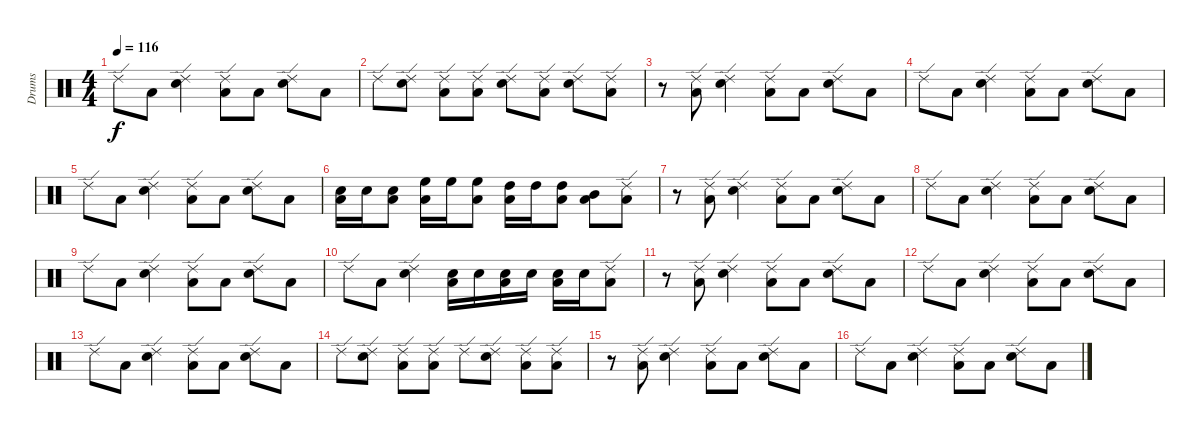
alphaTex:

\track ("Drums" "Drums") {instrument percussion}
\staff {score}
\articulation defaults
\ts (4 4)
\tempo 116
\clef neutral
\ks c "Ride (edge) 2".8{dy f} "Low Floor Tom (hit)".8
("Snare (hit) 2" "Ride (edge) 2").4 ("Low Floor Tom (hit)" "Ride (edge) 2").8 "Low Floor Tom (hit)".8 ("Snare (hit) 2" "Ride (edge) 2").8 "Low Floor Tom (hit)".8 |
"Ride (edge) 2".8 ("Snare (hit) 2" "Ride (edge) 2").8 ("Low Floor Tom (hit)" "Ride (edge) 2").8 ("Low Floor Tom (hit)" "Ride (edge) 2").8 ("Snare (hit) 2" "Ride (edge) 2").8 ("Low Floor Tom (hit)" "Ride (edge) 2").8 ("Snare (hit) 2" "Ride (edge) 2").8 ("Low Floor Tom (hit)" "Ride (edge) 2").8 |
r.8 ("Low Floor Tom (hit)" "Ride (edge) 2").8 ("Snare (hit) 2" "Ride (edge) 2").4 ("Low Floor Tom (hit)" "Ride (edge) 2").8 "Low Floor Tom (hit)".8 ("Snare (hit) 2" "Ride (edge) 2").8 "Low Floor Tom (hit)".8 |
"Ride (edge) 2".8 "Low Floor Tom (hit)".8 ("Snare (hit) 2" "Ride (edge) 2").4 ("Low Floor Tom (hit)" "Ride (edge) 2").8 "Low Floor Tom (hit)".8 ("Snare (hit) 2" "Ride (edge) 2").8 "Low Floor Tom (hit)".8 |
"Ride (edge) 2".8 "Low Floor Tom (hit)".8 ("Snare (hit) 2" "Ride (edge) 2").4 ("Low Floor Tom (hit)" "Ride (edge) 2").8 "Low Floor Tom (hit)".8 ("Snare (hit) 2" "Ride (edge) 2").8 "Low Floor Tom (hit)".8 |
("Snare (hit) 2" "Low Floor Tom (hit)").16 "Snare (hit) 2".16 ("Snare (hit) 2" "Low Floor Tom (hit)").8 ("Low Floor Tom (hit)" "High Floor Tom (hit)").16 "High Floor Tom (hit)".16 ("Low Floor Tom (hit)" "High Floor Tom (hit)").8 ("Low Floor Tom (hit)" "High Tom (hit)").16 "High Tom (hit)".16 ("Low Floor Tom (hit)" "High Tom (hit)").8 ("Low Floor Tom (hit)" "Mid Tom (hit)").8 ("Low Floor Tom (hit)" "Ride (edge) 2").8 |
r.8 ("Low Floor Tom (hit)" "Ride (edge) 2").8 ("Snare (hit) 2" "Ride (edge) 2").4 ("Low Floor Tom (hit)" "Ride (edge) 2").8 "Low Floor Tom (hit)".8 ("Snare (hit) 2" "Ride (edge) 2").8 "Low Floor Tom (hit)".8 |
"Ride (edge) 2".8 "Low Floor Tom (hit)".8 ("Snare (hit) 2" "Ride (edge) 2").4 ("Low Floor Tom (hit)" "Ride (edge) 2").8 "Low Floor Tom (hit)".8 ("Snare (hit) 2" "Ride (edge) 2").8 "Low Floor Tom (hit)".8 |
"Ride (edge) 2".8 "Low Floor Tom (hit)".8 ("Snare (hit) 2" "Ride (edge) 2").4 ("Low Floor Tom (hit)" "Ride (edge) 2").8 "Low Floor Tom (hit)".8 ("Snare (hit) 2" "Ride (edge) 2").8 "Low Floor Tom (hit)".8 |
"Ride (edge) 2".8 "Low Floor Tom (hit)".8 ("Snare (hit) 2" "Ride (edge) 2").4 ("Snare (hit) 2" "Low Floor Tom (hit)").16 "Snare (hit) 2".16 ("Snare (hit) 2" "Low Floor Tom (hit)").16 "Snare (hit) 2".16 ("Snare (hit) 2" "Low Floor Tom (hit)").16 "Snare (hit) 2".16 ("Low Floor Tom (hit)" "Ride (edge) 2").8 |
r.8 ("Low Floor Tom (hit)" "Ride (edge) 2").8 ("Snare (hit) 2" "Ride (edge) 2").4 ("Low Floor Tom (hit)" "Ride (edge) 2").8 "Low Floor Tom (hit)".8 ("Snare (hit) 2" "Ride (edge) 2").8 "Low Floor Tom (hit)".8 |
"Ride (edge) 2".8 "Low Floor Tom (hit)".8 ("Snare (hit) 2" "Ride (edge) 2").4 ("Low Floor Tom (hit)" "Ride (edge) 2").8 "Low Floor Tom (hit)".8 ("Snare (hit) 2" "Ride (edge) 2").8 "Low Floor Tom (hit)".8 |
"Ride (edge) 2".8 "Low Floor Tom (hit)".8 ("Snare (hit) 2" "Ride (edge) 2").4 ("Low Floor Tom (hit)" "Ride (edge) 2").8 "Low Floor Tom (hit)".8 ("Snare (hit) 2" "Ride (edge) 2").8 "Low Floor Tom (hit)".8 |
"Ride (edge) 2".8 ("Snare (hit) 2" "Ride (edge) 2").8 ("Low Floor Tom (hit)" "Ride (edge) 2").8 ("Low Floor Tom (hit)" "Ride (edge) 2").8 "Ride (edge) 2".8 ("Snare (hit) 2" "Ride (edge) 2").8 ("Low Floor Tom (hit)" "Ride (edge) 2").8 ("Low Floor Tom (hit)" "Ride (edge) 2").8 |
r.8 ("Low Floor Tom (hit)" "Ride (edge) 2").8 ("Snare (hit) 2" "Ride (edge) 2").4 ("Low Floor Tom (hit)" "Ride (edge) 2").8 "Low Floor Tom (hit)".8 ("Snare (hit) 2" "Ride (edge) 2").8 "Low Floor Tom (hit)".8 |
"Ride (edge) 2".8 "Low Floor Tom (hit)".8 ("Snare (hit) 2" "Ride (edge) 2").4 ("Low Floor Tom (hit)" "Ride (edge) 2").8 "Low Floor Tom (hit)".8 ("Snare (hit) 2" "Ride (edge) 2").8 "Low Floor Tom (hit)".8
